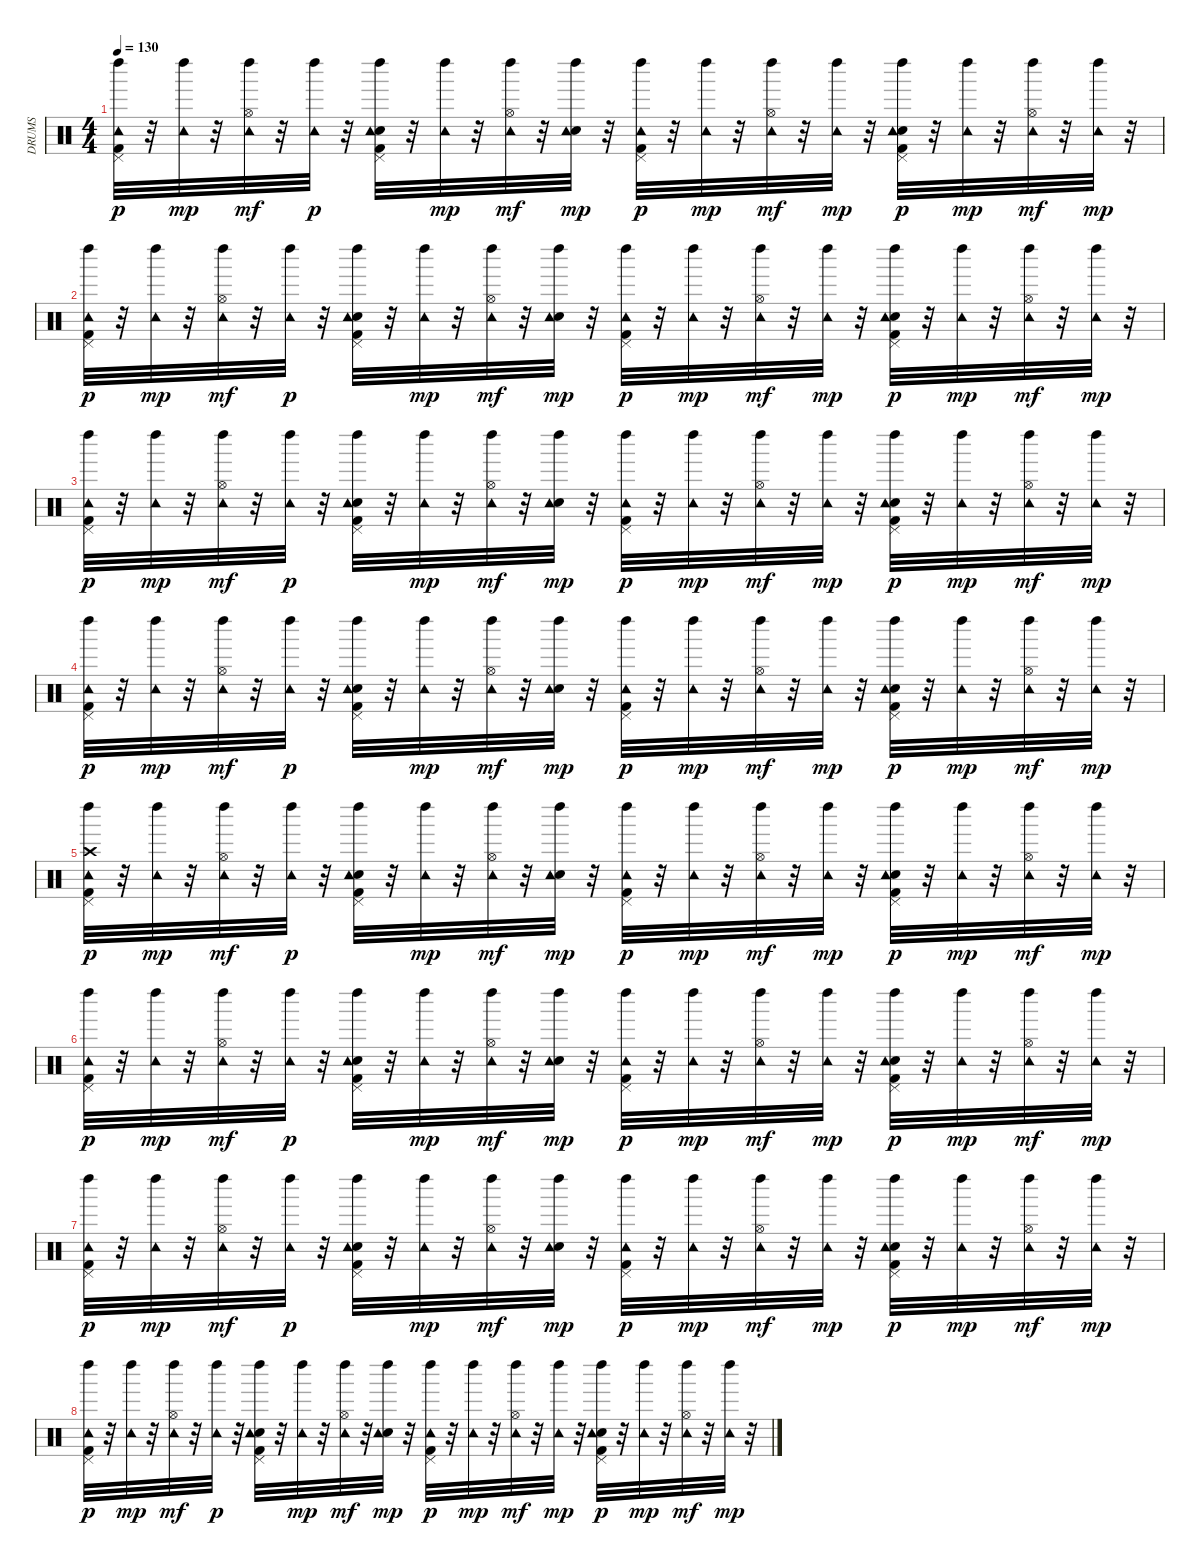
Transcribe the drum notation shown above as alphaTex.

\track ("DRUMS" "DRUMS") {instrument percussion}
\staff {score}
\articulation defaults
\ts (4 4)
\tempo 130
\clef neutral
\ks c
("Kick (hit) 2" "Pedal Hi-Hat (hit)" "Left Maraca (hit)" "Tambourine (hit)").32{dy p} r.32 ("Left Maraca (hit)" "Tambourine (hit)").32{dy mp} r.32 ("Hi-Hat (open)" "Left Maraca (hit)" "Tambourine (hit)").32{dy mf} r.32 ("Left Maraca (hit)" "Tambourine (hit)").32{dy p} r.32 ("Kick (hit) 2" "Electric Snare (hit)" "Pedal Hi-Hat (hit)" "Left Maraca (hit)" "Tambourine (hit)").32 r.32 ("Left Maraca (hit)" "Tambourine (hit)").32{dy mp} r.32 ("Hi-Hat (open)" "Left Maraca (hit)" "Tambourine (hit)").32{dy mf} r.32 ("Electric Snare (hit)" "Left Maraca (hit)" "Tambourine (hit)").32{dy mp} r.32 ("Kick (hit) 2" "Pedal Hi-Hat (hit)" "Left Maraca (hit)" "Tambourine (hit)").32{dy p} r.32 ("Left Maraca (hit)" "Tambourine (hit)").32{dy mp} r.32 ("Hi-Hat (open)" "Left Maraca (hit)" "Tambourine (hit)").32{dy mf} r.32 ("Left Maraca (hit)" "Tambourine (hit)").32{dy mp} r.32 ("Kick (hit) 2" "Electric Snare (hit)" "Pedal Hi-Hat (hit)" "Left Maraca (hit)" "Tambourine (hit)").32{dy p} r.32 ("Left Maraca (hit)" "Tambourine (hit)").32{dy mp} r.32 ("Hi-Hat (open)" "Left Maraca (hit)" "Tambourine (hit)").32{dy mf} r.32 ("Left Maraca (hit)" "Tambourine (hit)").32{dy mp} r.32 |
("Kick (hit) 2" "Pedal Hi-Hat (hit)" "Left Maraca (hit)" "Tambourine (hit)").32{dy p} r.32 ("Left Maraca (hit)" "Tambourine (hit)").32{dy mp} r.32 ("Hi-Hat (open)" "Left Maraca (hit)" "Tambourine (hit)").32{dy mf} r.32 ("Left Maraca (hit)" "Tambourine (hit)").32{dy p} r.32 ("Kick (hit) 2" "Electric Snare (hit)" "Pedal Hi-Hat (hit)" "Left Maraca (hit)" "Tambourine (hit)").32 r.32 ("Left Maraca (hit)" "Tambourine (hit)").32{dy mp} r.32 ("Hi-Hat (open)" "Left Maraca (hit)" "Tambourine (hit)").32{dy mf} r.32 ("Electric Snare (hit)" "Left Maraca (hit)" "Tambourine (hit)").32{dy mp} r.32 ("Kick (hit) 2" "Pedal Hi-Hat (hit)" "Left Maraca (hit)" "Tambourine (hit)").32{dy p} r.32 ("Left Maraca (hit)" "Tambourine (hit)").32{dy mp} r.32 ("Hi-Hat (open)" "Left Maraca (hit)" "Tambourine (hit)").32{dy mf} r.32 ("Left Maraca (hit)" "Tambourine (hit)").32{dy mp} r.32 ("Kick (hit) 2" "Electric Snare (hit)" "Pedal Hi-Hat (hit)" "Left Maraca (hit)" "Tambourine (hit)").32{dy p} r.32 ("Left Maraca (hit)" "Tambourine (hit)").32{dy mp} r.32 ("Hi-Hat (open)" "Left Maraca (hit)" "Tambourine (hit)").32{dy mf} r.32 ("Left Maraca (hit)" "Tambourine (hit)").32{dy mp} r.32 |
("Kick (hit) 2" "Pedal Hi-Hat (hit)" "Left Maraca (hit)" "Tambourine (hit)").32{dy p} r.32 ("Left Maraca (hit)" "Tambourine (hit)").32{dy mp} r.32 ("Hi-Hat (open)" "Left Maraca (hit)" "Tambourine (hit)").32{dy mf} r.32 ("Left Maraca (hit)" "Tambourine (hit)").32{dy p} r.32 ("Kick (hit) 2" "Electric Snare (hit)" "Pedal Hi-Hat (hit)" "Left Maraca (hit)" "Tambourine (hit)").32 r.32 ("Left Maraca (hit)" "Tambourine (hit)").32{dy mp} r.32 ("Hi-Hat (open)" "Left Maraca (hit)" "Tambourine (hit)").32{dy mf} r.32 ("Electric Snare (hit)" "Left Maraca (hit)" "Tambourine (hit)").32{dy mp} r.32 ("Kick (hit) 2" "Pedal Hi-Hat (hit)" "Left Maraca (hit)" "Tambourine (hit)").32{dy p} r.32 ("Left Maraca (hit)" "Tambourine (hit)").32{dy mp} r.32 ("Hi-Hat (open)" "Left Maraca (hit)" "Tambourine (hit)").32{dy mf} r.32 ("Left Maraca (hit)" "Tambourine (hit)").32{dy mp} r.32 ("Kick (hit) 2" "Electric Snare (hit)" "Pedal Hi-Hat (hit)" "Left Maraca (hit)" "Tambourine (hit)").32{dy p} r.32 ("Left Maraca (hit)" "Tambourine (hit)").32{dy mp} r.32 ("Hi-Hat (open)" "Left Maraca (hit)" "Tambourine (hit)").32{dy mf} r.32 ("Left Maraca (hit)" "Tambourine (hit)").32{dy mp} r.32 |
("Kick (hit) 2" "Pedal Hi-Hat (hit)" "Left Maraca (hit)" "Tambourine (hit)").32{dy p} r.32 ("Left Maraca (hit)" "Tambourine (hit)").32{dy mp} r.32 ("Hi-Hat (open)" "Left Maraca (hit)" "Tambourine (hit)").32{dy mf} r.32 ("Left Maraca (hit)" "Tambourine (hit)").32{dy p} r.32 ("Kick (hit) 2" "Electric Snare (hit)" "Pedal Hi-Hat (hit)" "Left Maraca (hit)" "Tambourine (hit)").32 r.32 ("Left Maraca (hit)" "Tambourine (hit)").32{dy mp} r.32 ("Hi-Hat (open)" "Left Maraca (hit)" "Tambourine (hit)").32{dy mf} r.32 ("Electric Snare (hit)" "Left Maraca (hit)" "Tambourine (hit)").32{dy mp} r.32 ("Kick (hit) 2" "Pedal Hi-Hat (hit)" "Left Maraca (hit)" "Tambourine (hit)").32{dy p} r.32 ("Left Maraca (hit)" "Tambourine (hit)").32{dy mp} r.32 ("Hi-Hat (open)" "Left Maraca (hit)" "Tambourine (hit)").32{dy mf} r.32 ("Left Maraca (hit)" "Tambourine (hit)").32{dy mp} r.32 ("Kick (hit) 2" "Electric Snare (hit)" "Pedal Hi-Hat (hit)" "Left Maraca (hit)" "Tambourine (hit)").32{dy p} r.32 ("Left Maraca (hit)" "Tambourine (hit)").32{dy mp} r.32 ("Hi-Hat (open)" "Left Maraca (hit)" "Tambourine (hit)").32{dy mf} r.32 ("Left Maraca (hit)" "Tambourine (hit)").32{dy mp} r.32 |
("Kick (hit) 2" "Pedal Hi-Hat (hit)" "Left Maraca (hit)" "Crash high (hit)" "Tambourine (hit)").32{dy p} r.32 ("Left Maraca (hit)" "Tambourine (hit)").32{dy mp} r.32 ("Hi-Hat (open)" "Left Maraca (hit)" "Tambourine (hit)").32{dy mf} r.32 ("Left Maraca (hit)" "Tambourine (hit)").32{dy p} r.32 ("Kick (hit) 2" "Electric Snare (hit)" "Pedal Hi-Hat (hit)" "Left Maraca (hit)" "Tambourine (hit)").32 r.32 ("Left Maraca (hit)" "Tambourine (hit)").32{dy mp} r.32 ("Hi-Hat (open)" "Left Maraca (hit)" "Tambourine (hit)").32{dy mf} r.32 ("Electric Snare (hit)" "Left Maraca (hit)" "Tambourine (hit)").32{dy mp} r.32 ("Kick (hit) 2" "Pedal Hi-Hat (hit)" "Left Maraca (hit)" "Tambourine (hit)").32{dy p} r.32 ("Left Maraca (hit)" "Tambourine (hit)").32{dy mp} r.32 ("Hi-Hat (open)" "Left Maraca (hit)" "Tambourine (hit)").32{dy mf} r.32 ("Left Maraca (hit)" "Tambourine (hit)").32{dy mp} r.32 ("Kick (hit) 2" "Electric Snare (hit)" "Pedal Hi-Hat (hit)" "Left Maraca (hit)" "Tambourine (hit)").32{dy p} r.32 ("Left Maraca (hit)" "Tambourine (hit)").32{dy mp} r.32 ("Hi-Hat (open)" "Left Maraca (hit)" "Tambourine (hit)").32{dy mf} r.32 ("Left Maraca (hit)" "Tambourine (hit)").32{dy mp} r.32 |
("Kick (hit) 2" "Pedal Hi-Hat (hit)" "Left Maraca (hit)" "Tambourine (hit)").32{dy p} r.32 ("Left Maraca (hit)" "Tambourine (hit)").32{dy mp} r.32 ("Hi-Hat (open)" "Left Maraca (hit)" "Tambourine (hit)").32{dy mf} r.32 ("Left Maraca (hit)" "Tambourine (hit)").32{dy p} r.32 ("Kick (hit) 2" "Electric Snare (hit)" "Pedal Hi-Hat (hit)" "Left Maraca (hit)" "Tambourine (hit)").32 r.32 ("Left Maraca (hit)" "Tambourine (hit)").32{dy mp} r.32 ("Hi-Hat (open)" "Left Maraca (hit)" "Tambourine (hit)").32{dy mf} r.32 ("Electric Snare (hit)" "Left Maraca (hit)" "Tambourine (hit)").32{dy mp} r.32 ("Kick (hit) 2" "Pedal Hi-Hat (hit)" "Left Maraca (hit)" "Tambourine (hit)").32{dy p} r.32 ("Left Maraca (hit)" "Tambourine (hit)").32{dy mp} r.32 ("Hi-Hat (open)" "Left Maraca (hit)" "Tambourine (hit)").32{dy mf} r.32 ("Left Maraca (hit)" "Tambourine (hit)").32{dy mp} r.32 ("Kick (hit) 2" "Electric Snare (hit)" "Pedal Hi-Hat (hit)" "Left Maraca (hit)" "Tambourine (hit)").32{dy p} r.32 ("Left Maraca (hit)" "Tambourine (hit)").32{dy mp} r.32 ("Hi-Hat (open)" "Left Maraca (hit)" "Tambourine (hit)").32{dy mf} r.32 ("Left Maraca (hit)" "Tambourine (hit)").32{dy mp} r.32 |
("Kick (hit) 2" "Pedal Hi-Hat (hit)" "Left Maraca (hit)" "Tambourine (hit)").32{dy p} r.32 ("Left Maraca (hit)" "Tambourine (hit)").32{dy mp} r.32 ("Hi-Hat (open)" "Left Maraca (hit)" "Tambourine (hit)").32{dy mf} r.32 ("Left Maraca (hit)" "Tambourine (hit)").32{dy p} r.32 ("Kick (hit) 2" "Electric Snare (hit)" "Pedal Hi-Hat (hit)" "Left Maraca (hit)" "Tambourine (hit)").32 r.32 ("Left Maraca (hit)" "Tambourine (hit)").32{dy mp} r.32 ("Hi-Hat (open)" "Left Maraca (hit)" "Tambourine (hit)").32{dy mf} r.32 ("Electric Snare (hit)" "Left Maraca (hit)" "Tambourine (hit)").32{dy mp} r.32 ("Kick (hit) 2" "Pedal Hi-Hat (hit)" "Left Maraca (hit)" "Tambourine (hit)").32{dy p} r.32 ("Left Maraca (hit)" "Tambourine (hit)").32{dy mp} r.32 ("Hi-Hat (open)" "Left Maraca (hit)" "Tambourine (hit)").32{dy mf} r.32 ("Left Maraca (hit)" "Tambourine (hit)").32{dy mp} r.32 ("Kick (hit) 2" "Electric Snare (hit)" "Pedal Hi-Hat (hit)" "Left Maraca (hit)" "Tambourine (hit)").32{dy p} r.32 ("Left Maraca (hit)" "Tambourine (hit)").32{dy mp} r.32 ("Hi-Hat (open)" "Left Maraca (hit)" "Tambourine (hit)").32{dy mf} r.32 ("Left Maraca (hit)" "Tambourine (hit)").32{dy mp} r.32 |
("Kick (hit) 2" "Pedal Hi-Hat (hit)" "Left Maraca (hit)" "Tambourine (hit)").32{dy p} r.32 ("Left Maraca (hit)" "Tambourine (hit)").32{dy mp} r.32 ("Hi-Hat (open)" "Left Maraca (hit)" "Tambourine (hit)").32{dy mf} r.32 ("Left Maraca (hit)" "Tambourine (hit)").32{dy p} r.32 ("Kick (hit) 2" "Electric Snare (hit)" "Pedal Hi-Hat (hit)" "Left Maraca (hit)" "Tambourine (hit)").32 r.32 ("Left Maraca (hit)" "Tambourine (hit)").32{dy mp} r.32 ("Hi-Hat (open)" "Left Maraca (hit)" "Tambourine (hit)").32{dy mf} r.32 ("Electric Snare (hit)" "Left Maraca (hit)" "Tambourine (hit)").32{dy mp} r.32 ("Kick (hit) 2" "Pedal Hi-Hat (hit)" "Left Maraca (hit)" "Tambourine (hit)").32{dy p} r.32 ("Left Maraca (hit)" "Tambourine (hit)").32{dy mp} r.32 ("Hi-Hat (open)" "Left Maraca (hit)" "Tambourine (hit)").32{dy mf} r.32 ("Left Maraca (hit)" "Tambourine (hit)").32{dy mp} r.32 ("Kick (hit) 2" "Electric Snare (hit)" "Pedal Hi-Hat (hit)" "Left Maraca (hit)" "Tambourine (hit)").32{dy p} r.32 ("Left Maraca (hit)" "Tambourine (hit)").32{dy mp} r.32 ("Hi-Hat (open)" "Left Maraca (hit)" "Tambourine (hit)").32{dy mf} r.32 ("Left Maraca (hit)" "Tambourine (hit)").32{dy mp} r.32
